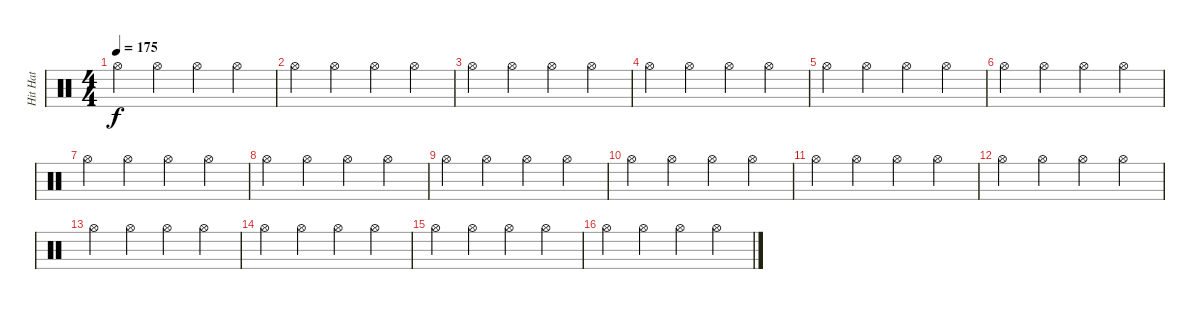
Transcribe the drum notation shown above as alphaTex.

\track ("Hit Hat" "Hit Hat") {instrument percussion}
\staff {score}
\articulation defaults
\ts (4 4)
\tempo 175
\clef neutral
\ks c "Hi-Hat (open)".4{dy f} "Hi-Hat (open)".4 "Hi-Hat (open)".4 "Hi-Hat (open)".4
|
"Hi-Hat (open)".4 "Hi-Hat (open)".4 "Hi-Hat (open)".4 "Hi-Hat (open)".4 |
"Hi-Hat (open)".4 "Hi-Hat (open)".4 "Hi-Hat (open)".4 "Hi-Hat (open)".4 |
"Hi-Hat (open)".4 "Hi-Hat (open)".4 "Hi-Hat (open)".4 "Hi-Hat (open)".4 |
"Hi-Hat (open)".4 "Hi-Hat (open)".4 "Hi-Hat (open)".4 "Hi-Hat (open)".4 |
"Hi-Hat (open)".4 "Hi-Hat (open)".4 "Hi-Hat (open)".4 "Hi-Hat (open)".4 |
"Hi-Hat (open)".4 "Hi-Hat (open)".4 "Hi-Hat (open)".4 "Hi-Hat (open)".4 |
"Hi-Hat (open)".4 "Hi-Hat (open)".4 "Hi-Hat (open)".4 "Hi-Hat (open)".4 |
"Hi-Hat (open)".4 "Hi-Hat (open)".4 "Hi-Hat (open)".4 "Hi-Hat (open)".4 |
"Hi-Hat (open)".4 "Hi-Hat (open)".4 "Hi-Hat (open)".4 "Hi-Hat (open)".4 |
"Hi-Hat (open)".4 "Hi-Hat (open)".4 "Hi-Hat (open)".4 "Hi-Hat (open)".4 |
"Hi-Hat (open)".4 "Hi-Hat (open)".4 "Hi-Hat (open)".4 "Hi-Hat (open)".4 |
"Hi-Hat (open)".4 "Hi-Hat (open)".4 "Hi-Hat (open)".4 "Hi-Hat (open)".4 |
"Hi-Hat (open)".4 "Hi-Hat (open)".4 "Hi-Hat (open)".4 "Hi-Hat (open)".4 |
"Hi-Hat (open)".4 "Hi-Hat (open)".4 "Hi-Hat (open)".4 "Hi-Hat (open)".4 |
"Hi-Hat (open)".4 "Hi-Hat (open)".4 "Hi-Hat (open)".4 "Hi-Hat (open)".4
